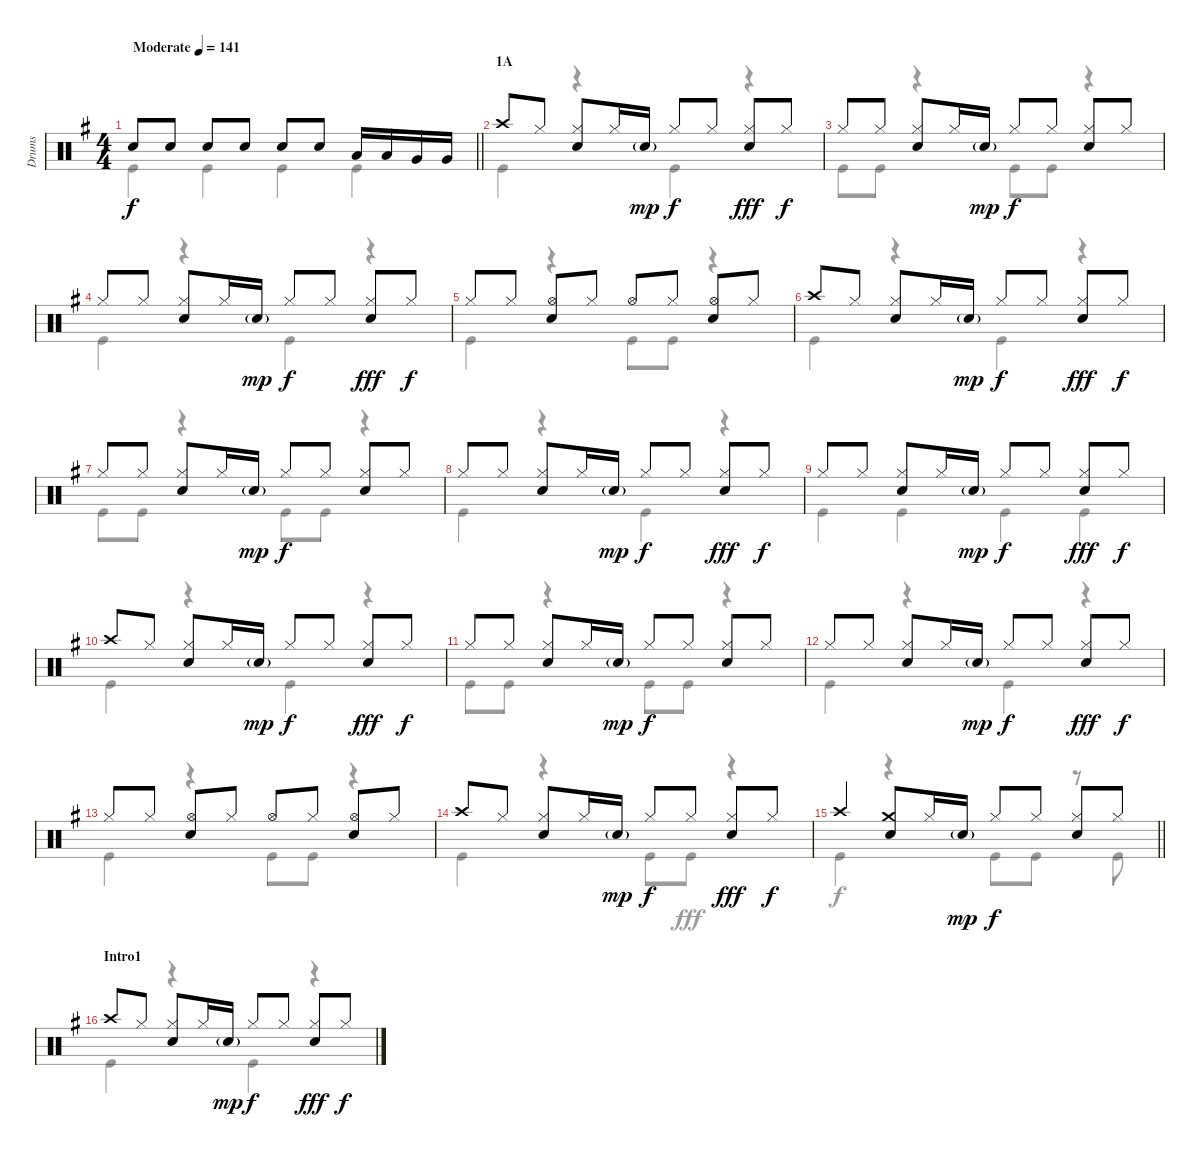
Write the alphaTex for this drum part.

\track ("Drums" "Drums") {instrument percussion}
\staff {score}
\articulation defaults
\voice
\ts (4 4)
\tempo (141 "Moderate")
\clef neutral
\barLineRight lightlight
\ks g "Snare (hit) 2".8{dy f} "Snare (hit) 2".8 "Snare (hit) 2".8 "Snare (hit) 2".8 "Snare (hit) 2".8 "Snare (hit) 2".8 "Low Tom (hit)".16 "Low Tom (hit)".16 "Very Low Tom (hit)".16 "Very Low Tom (hit)".16
|
\section ("" "1A")
"Crash high (hit)".8 "Hi-Hat (closed)".8 ("Hi-Hat (closed)" "Snare (hit) 2").8 "Hi-Hat (closed)".16 "Snare (hit) 2"{g}.16{dy mp} "Hi-Hat (closed)".8{dy f} "Hi-Hat (closed)".8 ("Hi-Hat (closed)" "Snare (hit) 2").8{dy fff} "Hi-Hat (closed)".8{dy f} |
"Hi-Hat (closed)".8 "Hi-Hat (closed)".8 ("Hi-Hat (closed)" "Snare (hit) 2").8 "Hi-Hat (closed)".16 "Snare (hit) 2"{g}.16{dy mp} "Hi-Hat (closed)".8{dy f} "Hi-Hat (closed)".8 ("Hi-Hat (closed)" "Snare (hit) 2").8 "Hi-Hat (closed)".8 |
"Hi-Hat (closed)".8 "Hi-Hat (closed)".8 ("Hi-Hat (closed)" "Snare (hit) 2").8 "Hi-Hat (closed)".16 "Snare (hit) 2"{g}.16{dy mp} "Hi-Hat (closed)".8{dy f} "Hi-Hat (closed)".8 ("Hi-Hat (closed)" "Snare (hit) 2").8{dy fff} "Hi-Hat (closed)".8{dy f} |
"Hi-Hat (closed)".8 "Hi-Hat (closed)".8 ("Hi-Hat (open)" "Snare (hit) 2").8 "Hi-Hat (closed)".8 "Hi-Hat (open)".8 "Hi-Hat (closed)".8 ("Hi-Hat (open)" "Snare (hit) 2").8 "Hi-Hat (closed)".8 |
"Crash high (hit)".8 "Hi-Hat (closed)".8 ("Hi-Hat (closed)" "Snare (hit) 2").8 "Hi-Hat (closed)".16 "Snare (hit) 2"{g}.16{dy mp} "Hi-Hat (closed)".8{dy f} "Hi-Hat (closed)".8 ("Hi-Hat (closed)" "Snare (hit) 2").8{dy fff} "Hi-Hat (closed)".8{dy f} |
"Hi-Hat (closed)".8 "Hi-Hat (closed)".8 ("Hi-Hat (closed)" "Snare (hit) 2").8 "Hi-Hat (closed)".16 "Snare (hit) 2"{g}.16{dy mp} "Hi-Hat (closed)".8{dy f} "Hi-Hat (closed)".8 ("Hi-Hat (closed)" "Snare (hit) 2").8 "Hi-Hat (closed)".8 |
"Hi-Hat (closed)".8 "Hi-Hat (closed)".8 ("Hi-Hat (closed)" "Snare (hit) 2").8 "Hi-Hat (closed)".16 "Snare (hit) 2"{g}.16{dy mp} "Hi-Hat (closed)".8{dy f} "Hi-Hat (closed)".8 ("Hi-Hat (closed)" "Snare (hit) 2").8{dy fff} "Hi-Hat (closed)".8{dy f} |
"Hi-Hat (closed)".8 "Hi-Hat (closed)".8 ("Hi-Hat (closed)" "Snare (hit) 2").8 "Hi-Hat (closed)".16 "Snare (hit) 2"{g}.16{dy mp} "Hi-Hat (closed)".8{dy f} "Hi-Hat (closed)".8 ("Hi-Hat (closed)" "Snare (hit) 2").8{dy fff} "Hi-Hat (closed)".8{dy f} |
"Crash high (hit)".8 "Hi-Hat (closed)".8 ("Hi-Hat (closed)" "Snare (hit) 2").8 "Hi-Hat (closed)".16 "Snare (hit) 2"{g}.16{dy mp} "Hi-Hat (closed)".8{dy f} "Hi-Hat (closed)".8 ("Hi-Hat (closed)" "Snare (hit) 2").8{dy fff} "Hi-Hat (closed)".8{dy f} |
"Hi-Hat (closed)".8 "Hi-Hat (closed)".8 ("Hi-Hat (closed)" "Snare (hit) 2").8 "Hi-Hat (closed)".16 "Snare (hit) 2"{g}.16{dy mp} "Hi-Hat (closed)".8{dy f} "Hi-Hat (closed)".8 ("Hi-Hat (closed)" "Snare (hit) 2").8 "Hi-Hat (closed)".8 |
"Hi-Hat (closed)".8 "Hi-Hat (closed)".8 ("Hi-Hat (closed)" "Snare (hit) 2").8 "Hi-Hat (closed)".16 "Snare (hit) 2"{g}.16{dy mp} "Hi-Hat (closed)".8{dy f} "Hi-Hat (closed)".8 ("Hi-Hat (closed)" "Snare (hit) 2").8{dy fff} "Hi-Hat (closed)".8{dy f} |
"Hi-Hat (closed)".8 "Hi-Hat (closed)".8 ("Hi-Hat (open)" "Snare (hit) 2").8 "Hi-Hat (closed)".8 "Hi-Hat (open)".8 "Hi-Hat (closed)".8 ("Hi-Hat (open)" "Snare (hit) 2").8 "Hi-Hat (closed)".8 |
"Crash high (hit)".8 "Hi-Hat (closed)".8 ("Hi-Hat (closed)" "Snare (hit) 2").8 "Hi-Hat (closed)".16 "Snare (hit) 2"{g}.16{dy mp} "Hi-Hat (closed)".8{dy f} "Hi-Hat (closed)".8 ("Hi-Hat (closed)" "Snare (hit) 2").8{dy fff} "Hi-Hat (closed)".8{dy f} |
\barLineRight lightlight "Crash high (hit)".4
("Crash medium (hit)" "Snare (hit) 2").8 "Hi-Hat (closed)".16 "Snare (hit) 2"{g}.16{dy mp} "Hi-Hat (closed)".8{dy f} "Hi-Hat (closed)".8 ("Hi-Hat (closed)" "Snare (hit) 2").8 "Hi-Hat (closed)".8 |
\section ("" "Intro1")
"Crash high (hit)".8 "Hi-Hat (closed)".8 ("Hi-Hat (closed)" "Snare (hit) 2").8 "Hi-Hat (closed)".16 "Snare (hit) 2"{g}.16{dy mp} "Hi-Hat (closed)".8{dy f} "Hi-Hat (closed)".8 ("Hi-Hat (closed)" "Snare (hit) 2").8{dy fff} "Hi-Hat (closed)".8{dy f}
\voice
\clef neutral
\ottava regular
\simile none
\barLineRight lightlight
\ks g "Kick (hit)".4{dy f} "Kick (hit)".4 "Kick (hit)".4 "Kick (hit)".4
|
"Kick (hit)".4 r.4 "Kick (hit)".4 r.4 |
"Kick (hit)".8 "Kick (hit)".8 r.4 "Kick (hit)".8 "Kick (hit)".8 r.4 |
"Kick (hit)".4 r.4 "Kick (hit)".4 r.4 |
"Kick (hit)".4 r.4 "Kick (hit)".8 "Kick (hit)".8 r.4 |
"Kick (hit)".4 r.4 "Kick (hit)".4 r.4 |
"Kick (hit)".8 "Kick (hit)".8 r.4 "Kick (hit)".8 "Kick (hit)".8 r.4 |
"Kick (hit)".4 r.4 "Kick (hit)".4 r.4 |
"Kick (hit)".4 "Kick (hit)".4 "Kick (hit)".4 "Kick (hit)".4 |
"Kick (hit)".4 r.4 "Kick (hit)".4 r.4 |
"Kick (hit)".8 "Kick (hit)".8 r.4 "Kick (hit)".8 "Kick (hit)".8 r.4 |
"Kick (hit)".4 r.4 "Kick (hit)".4 r.4 |
"Kick (hit)".4 r.4 "Kick (hit)".8 "Kick (hit)".8 r.4 |
"Kick (hit)".4 r.4 "Kick (hit)".8 "Kick (hit)".8{dy fff} r.4 |
\barLineRight lightlight "Kick (hit)".4{dy f}
r.4 "Kick (hit)".8 "Kick (hit)".8 r.8 "Kick (hit)".8 |
"Kick (hit)".4 r.4 "Kick (hit)".4 r.4
